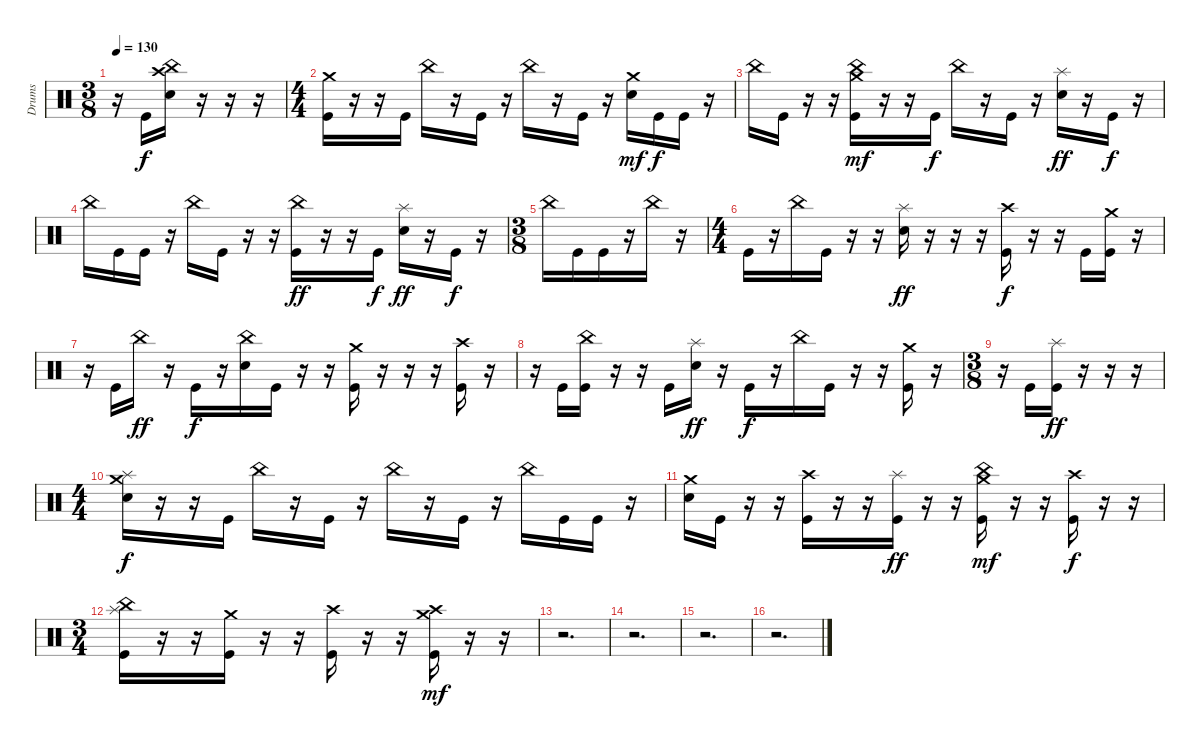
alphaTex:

\track ("Drums" "Drums") {instrument percussion}
\staff {score}
\articulation defaults
\ts (3 8)
\tempo 130
\clef neutral
\ks c
r.16{dy f} "Kick (hit)".16 ("Crash high (hit)" "China (hit)" "Electric Snare (hit)").16 r.16 r.16 r.16 |
\ts (4 4)
("Crash medium (hit)" "Kick (hit)").16 r.16 r.16 "Kick (hit)".16 "China (hit)".16 r.16 "Kick (hit)".16 r.16 "China (hit)".16 r.16 "Kick (hit)".16 r.16 ("Crash medium (hit)" "Electric Snare (hit)").16{dy mf} "Kick (hit)".16{dy f} "Kick (hit)".16 r.16 |
"China (hit)".16 "Kick (hit)".16 r.16 r.16 ("Crash medium (hit)" "China (hit)" "Kick (hit)").16{dy mf} r.16 r.16 "Kick (hit)".16{dy f} "China (hit)".16 r.16 "Kick (hit)".16 r.16 ("Splash (hit)" "Electric Snare (hit)").16{dy ff} r.16 "Kick (hit)".16{dy f} r.16 |
"China (hit)".16 "Kick (hit)".16 "Kick (hit)".16 r.16 "China (hit)".16 "Kick (hit)".16 r.16 r.16 ("China (hit)" "Kick (hit)").16{dy ff} r.16 r.16 "Kick (hit)".16{dy f} ("Splash (hit)" "Electric Snare (hit)").16{dy ff} r.16 "Kick (hit)".16{dy f} r.16 |
\ts (3 8)
"China (hit)".16 "Kick (hit)".16 "Kick (hit)".16 r.16 "China (hit)".16 r.16 |
\ts (4 4)
"Kick (hit)".16 r.16 "China (hit)".16 "Kick (hit)".16 r.16 r.16 ("Splash (hit)" "Electric Snare (hit)").16{dy ff} r.16 r.16 r.16 ("Crash high (hit)" "Kick (hit)").16{dy f} r.16 r.16 "Kick (hit)".16 ("Crash medium (hit)" "Kick (hit)").16 r.16 |
r.16 "Kick (hit)".16 "China (hit)".16{dy ff} r.16 "Kick (hit)".16{dy f} r.16 ("China (hit)" "Electric Snare (hit)").16 "Kick (hit)".16 r.16 r.16 ("Crash medium (hit)" "Kick (hit)").16 r.16 r.16 r.16 ("Crash high (hit)" "Kick (hit)").16 r.16 |
r.16 "Kick (hit)".16 ("China (hit)" "Kick (hit)").16 r.16 r.16 "Kick (hit)".16 ("Splash (hit)" "Electric Snare (hit)").16{dy ff} r.16 "Kick (hit)".16{dy f} r.16 "China (hit)".16 "Kick (hit)".16 r.16 r.16 ("Crash medium (hit)" "Kick (hit)").16 r.16 |
\ts (3 8)
r.16 "Kick (hit)".16 ("Splash (hit)" "Kick (hit)").16{dy ff} r.16 r.16 r.16 |
\ts (4 4)
("Crash medium (hit)" "Splash (hit)" "Electric Snare (hit)").16{dy f} r.16 r.16 "Kick (hit)".16 "China (hit)".16 r.16 "Kick (hit)".16 r.16 "China (hit)".16 r.16 "Kick (hit)".16 r.16 "China (hit)".16 "Kick (hit)".16 "Kick (hit)".16 r.16 |
("Crash medium (hit)" "Electric Snare (hit)").16 "Kick (hit)".16 r.16 r.16 ("Crash high (hit)" "Kick (hit)").16 r.16 r.16 ("Splash (hit)" "Kick (hit)").16{dy ff} r.16 r.16 ("China (hit)" "Crash medium (hit)" "Kick (hit)").16{dy mf} r.16 r.16 ("Crash high (hit)" "Kick (hit)").16{dy f} r.16 r.16 |
\ts (3 4)
("China (hit)" "Splash (hit)" "Kick (hit)").16 r.16 r.16 ("Crash medium (hit)" "Kick (hit)").16 r.16 r.16 ("Crash high (hit)" "Kick (hit)").16 r.16 r.16 ("Crash high (hit)" "Crash medium (hit)" "Kick (hit)").16{dy mf} r.16 r.16 |
r.2{d} |
r.2{d} |
r.2{d} |
r.2{d}
